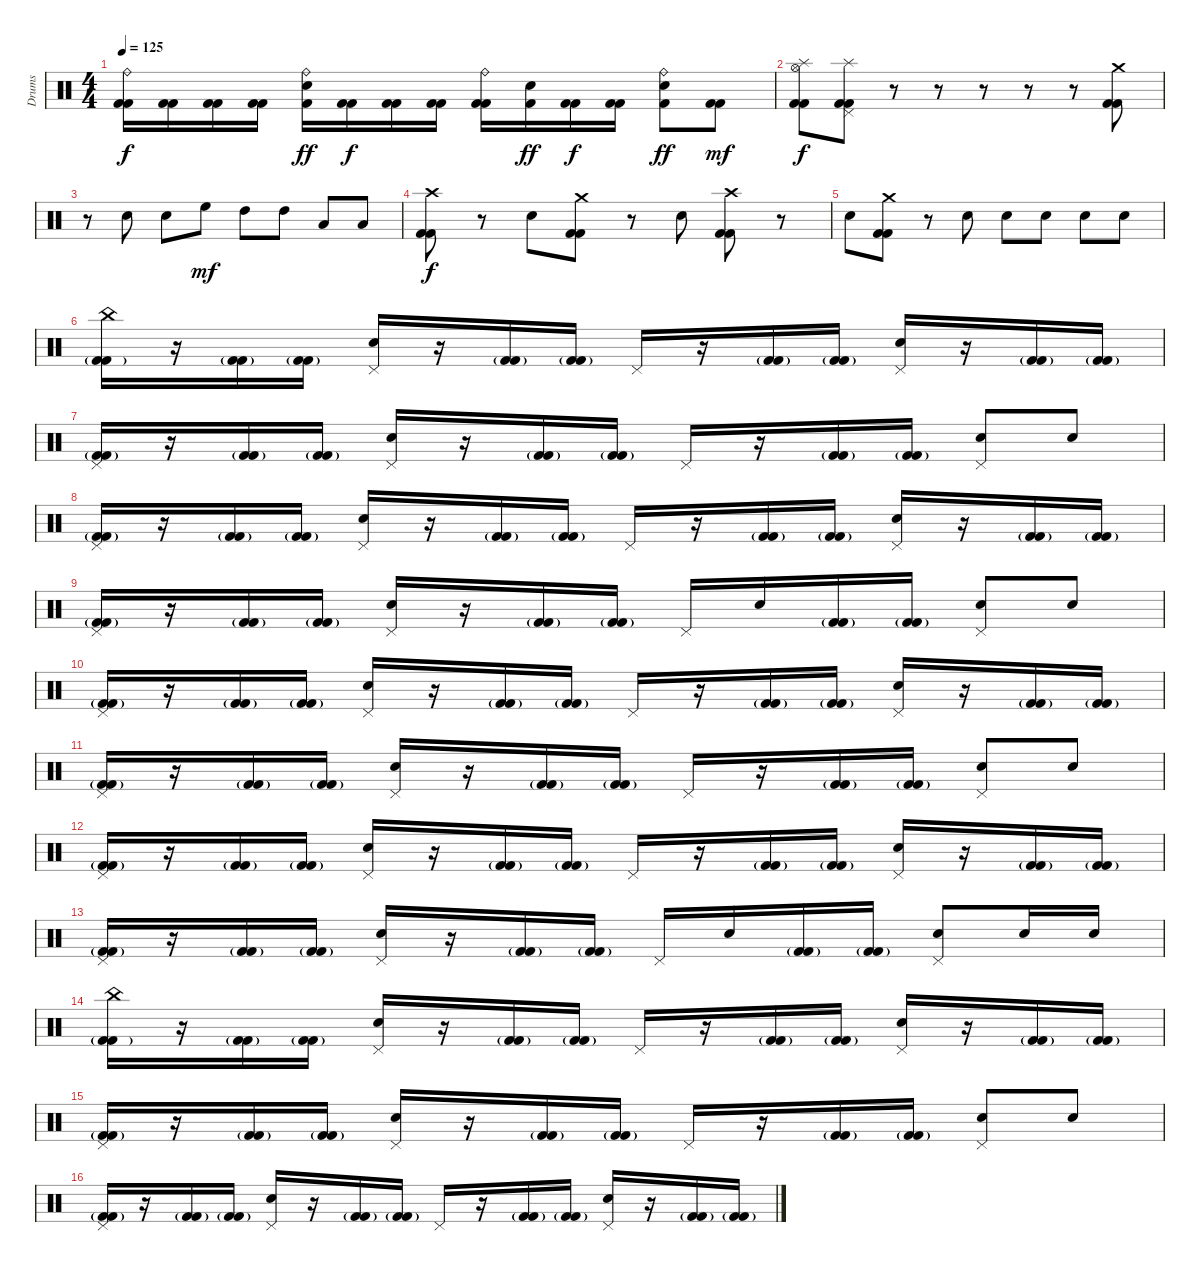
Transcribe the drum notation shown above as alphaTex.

\track ("Drums" "Drums") {instrument percussion}
\staff {score}
\articulation defaults
\ts (4 4)
\tempo 125
\clef neutral
\ks c
("Ride (bell)" "Kick (hit) 2" "Kick (hit) 2").16{dy f} ("Kick (hit) 2" "Kick (hit) 2").16 ("Kick (hit) 2" "Kick (hit) 2").16 ("Kick (hit) 2" "Kick (hit) 2").16 ("Ride (bell)" "Electric Snare (hit)" "Kick (hit) 2").16{dy ff} ("Kick (hit) 2" "Kick (hit) 2").16{dy f} ("Kick (hit) 2" "Kick (hit) 2").16 ("Kick (hit) 2" "Kick (hit) 2").16 ("Ride (bell)" "Kick (hit) 2" "Kick (hit) 2").16 ("Electric Snare (hit)" "Kick (hit) 2").16{dy ff} ("Kick (hit) 2" "Kick (hit) 2").16{dy f} ("Kick (hit) 2" "Kick (hit) 2").16 ("Ride (bell)" "Electric Snare (hit)" "Kick (hit) 2").8{dy ff} ("Kick (hit) 2" "Kick (hit) 2").8{dy mf} |
("Hi-Hat (open)" "Splash (hit)" "Kick (hit) 2" "Kick (hit) 2").8{dy f} ("Pedal Hi-Hat (hit)" "Splash (hit)" "Kick (hit) 2" "Kick (hit) 2").8 r.8 r.8 r.8 r.8 r.8 ("Crash medium (hit)" "Kick (hit) 2" "Kick (hit) 2").8 |
r.8 "Snare (hit) 2".8 "Snare (hit) 2".8 "High Floor Tom (hit)".8{dy mf} "High Tom (hit)".8 "High Tom (hit)".8 "Low Tom (hit)".8 "Low Tom (hit)".8 |
("Crash high (hit)" "Kick (hit) 2" "Kick (hit) 2").8{dy f} r.8 "Snare (hit) 2".8 ("Crash medium (hit)" "Kick (hit) 2" "Kick (hit) 2").8 r.8 "Snare (hit) 2".8 ("Crash high (hit)" "Kick (hit) 2" "Kick (hit) 2").8 r.8 |
"Snare (hit) 2".8 ("Crash medium (hit)" "Kick (hit) 2" "Kick (hit) 2").8 r.8 "Snare (hit) 2".8 "Snare (hit) 2".8 "Snare (hit) 2".8 "Snare (hit) 2".8 "Snare (hit) 2".8 |
("China (hit)" "Kick (hit) 2"{g} "Kick (hit) 2").16 r.16 ("Kick (hit) 2"{g} "Kick (hit) 2").16 ("Kick (hit) 2"{g} "Kick (hit) 2").16 ("Pedal Hi-Hat (hit)" "Electric Snare (hit)").16 r.16 ("Kick (hit) 2"{g} "Kick (hit) 2").16 ("Kick (hit) 2"{g} "Kick (hit) 2").16 "Pedal Hi-Hat (hit)".16 r.16 ("Kick (hit) 2"{g} "Kick (hit) 2").16 ("Kick (hit) 2"{g} "Kick (hit) 2").16 ("Pedal Hi-Hat (hit)" "Electric Snare (hit)").16 r.16 ("Kick (hit) 2"{g} "Kick (hit) 2").16 ("Kick (hit) 2"{g} "Kick (hit) 2").16 |
("Pedal Hi-Hat (hit)" "Kick (hit) 2"{g} "Kick (hit) 2").16 r.16 ("Kick (hit) 2"{g} "Kick (hit) 2").16 ("Kick (hit) 2"{g} "Kick (hit) 2").16 ("Pedal Hi-Hat (hit)" "Electric Snare (hit)").16 r.16 ("Kick (hit) 2"{g} "Kick (hit) 2").16 ("Kick (hit) 2"{g} "Kick (hit) 2").16 "Pedal Hi-Hat (hit)".16 r.16 ("Kick (hit) 2"{g} "Kick (hit) 2").16 ("Kick (hit) 2"{g} "Kick (hit) 2").16 ("Pedal Hi-Hat (hit)" "Electric Snare (hit)").8 "Electric Snare (hit)".8 |
("Pedal Hi-Hat (hit)" "Kick (hit) 2"{g} "Kick (hit) 2").16 r.16 ("Kick (hit) 2"{g} "Kick (hit) 2").16 ("Kick (hit) 2"{g} "Kick (hit) 2").16 ("Pedal Hi-Hat (hit)" "Electric Snare (hit)").16 r.16 ("Kick (hit) 2"{g} "Kick (hit) 2").16 ("Kick (hit) 2"{g} "Kick (hit) 2").16 "Pedal Hi-Hat (hit)".16 r.16 ("Kick (hit) 2"{g} "Kick (hit) 2").16 ("Kick (hit) 2"{g} "Kick (hit) 2").16 ("Pedal Hi-Hat (hit)" "Electric Snare (hit)").16 r.16 ("Kick (hit) 2"{g} "Kick (hit) 2").16 ("Kick (hit) 2"{g} "Kick (hit) 2").16 |
("Pedal Hi-Hat (hit)" "Kick (hit) 2"{g} "Kick (hit) 2").16 r.16 ("Kick (hit) 2"{g} "Kick (hit) 2").16 ("Kick (hit) 2"{g} "Kick (hit) 2").16 ("Pedal Hi-Hat (hit)" "Electric Snare (hit)").16 r.16 ("Kick (hit) 2"{g} "Kick (hit) 2").16 ("Kick (hit) 2"{g} "Kick (hit) 2").16 "Pedal Hi-Hat (hit)".16 "Electric Snare (hit)".16 ("Kick (hit) 2"{g} "Kick (hit) 2").16 ("Kick (hit) 2"{g} "Kick (hit) 2").16 ("Pedal Hi-Hat (hit)" "Electric Snare (hit)").8 "Electric Snare (hit)".8 |
("Pedal Hi-Hat (hit)" "Kick (hit) 2"{g} "Kick (hit) 2").16 r.16 ("Kick (hit) 2"{g} "Kick (hit) 2").16 ("Kick (hit) 2"{g} "Kick (hit) 2").16 ("Pedal Hi-Hat (hit)" "Electric Snare (hit)").16 r.16 ("Kick (hit) 2"{g} "Kick (hit) 2").16 ("Kick (hit) 2"{g} "Kick (hit) 2").16 "Pedal Hi-Hat (hit)".16 r.16 ("Kick (hit) 2"{g} "Kick (hit) 2").16 ("Kick (hit) 2"{g} "Kick (hit) 2").16 ("Pedal Hi-Hat (hit)" "Electric Snare (hit)").16 r.16 ("Kick (hit) 2"{g} "Kick (hit) 2").16 ("Kick (hit) 2"{g} "Kick (hit) 2").16 |
("Pedal Hi-Hat (hit)" "Kick (hit) 2"{g} "Kick (hit) 2").16 r.16 ("Kick (hit) 2"{g} "Kick (hit) 2").16 ("Kick (hit) 2"{g} "Kick (hit) 2").16 ("Pedal Hi-Hat (hit)" "Electric Snare (hit)").16 r.16 ("Kick (hit) 2"{g} "Kick (hit) 2").16 ("Kick (hit) 2"{g} "Kick (hit) 2").16 "Pedal Hi-Hat (hit)".16 r.16 ("Kick (hit) 2"{g} "Kick (hit) 2").16 ("Kick (hit) 2"{g} "Kick (hit) 2").16 ("Pedal Hi-Hat (hit)" "Electric Snare (hit)").8 "Electric Snare (hit)".8 |
("Pedal Hi-Hat (hit)" "Kick (hit) 2"{g} "Kick (hit) 2").16 r.16 ("Kick (hit) 2"{g} "Kick (hit) 2").16 ("Kick (hit) 2"{g} "Kick (hit) 2").16 ("Pedal Hi-Hat (hit)" "Electric Snare (hit)").16 r.16 ("Kick (hit) 2"{g} "Kick (hit) 2").16 ("Kick (hit) 2"{g} "Kick (hit) 2").16 "Pedal Hi-Hat (hit)".16 r.16 ("Kick (hit) 2"{g} "Kick (hit) 2").16 ("Kick (hit) 2"{g} "Kick (hit) 2").16 ("Pedal Hi-Hat (hit)" "Electric Snare (hit)").16 r.16 ("Kick (hit) 2"{g} "Kick (hit) 2").16 ("Kick (hit) 2"{g} "Kick (hit) 2").16 |
("Pedal Hi-Hat (hit)" "Kick (hit) 2"{g} "Kick (hit) 2").16 r.16 ("Kick (hit) 2"{g} "Kick (hit) 2").16 ("Kick (hit) 2"{g} "Kick (hit) 2").16 ("Pedal Hi-Hat (hit)" "Electric Snare (hit)").16 r.16 ("Kick (hit) 2"{g} "Kick (hit) 2").16 ("Kick (hit) 2"{g} "Kick (hit) 2").16 "Pedal Hi-Hat (hit)".16 "Electric Snare (hit)".16 ("Kick (hit) 2"{g} "Kick (hit) 2").16 ("Kick (hit) 2"{g} "Kick (hit) 2").16 ("Pedal Hi-Hat (hit)" "Electric Snare (hit)").8 "Electric Snare (hit)".16 "Electric Snare (hit)".16 |
("China (hit)" "Kick (hit) 2"{g} "Kick (hit) 2").16 r.16 ("Kick (hit) 2"{g} "Kick (hit) 2").16 ("Kick (hit) 2"{g} "Kick (hit) 2").16 ("Pedal Hi-Hat (hit)" "Electric Snare (hit)").16 r.16 ("Kick (hit) 2"{g} "Kick (hit) 2").16 ("Kick (hit) 2"{g} "Kick (hit) 2").16 "Pedal Hi-Hat (hit)".16 r.16 ("Kick (hit) 2"{g} "Kick (hit) 2").16 ("Kick (hit) 2"{g} "Kick (hit) 2").16 ("Pedal Hi-Hat (hit)" "Electric Snare (hit)").16 r.16 ("Kick (hit) 2"{g} "Kick (hit) 2").16 ("Kick (hit) 2"{g} "Kick (hit) 2").16 |
("Pedal Hi-Hat (hit)" "Kick (hit) 2"{g} "Kick (hit) 2").16 r.16 ("Kick (hit) 2"{g} "Kick (hit) 2").16 ("Kick (hit) 2"{g} "Kick (hit) 2").16 ("Pedal Hi-Hat (hit)" "Electric Snare (hit)").16 r.16 ("Kick (hit) 2"{g} "Kick (hit) 2").16 ("Kick (hit) 2"{g} "Kick (hit) 2").16 "Pedal Hi-Hat (hit)".16 r.16 ("Kick (hit) 2"{g} "Kick (hit) 2").16 ("Kick (hit) 2"{g} "Kick (hit) 2").16 ("Pedal Hi-Hat (hit)" "Electric Snare (hit)").8 "Electric Snare (hit)".8 |
("Pedal Hi-Hat (hit)" "Kick (hit) 2"{g} "Kick (hit) 2").16 r.16 ("Kick (hit) 2"{g} "Kick (hit) 2").16 ("Kick (hit) 2"{g} "Kick (hit) 2").16 ("Pedal Hi-Hat (hit)" "Electric Snare (hit)").16 r.16 ("Kick (hit) 2"{g} "Kick (hit) 2").16 ("Kick (hit) 2"{g} "Kick (hit) 2").16 "Pedal Hi-Hat (hit)".16 r.16 ("Kick (hit) 2"{g} "Kick (hit) 2").16 ("Kick (hit) 2"{g} "Kick (hit) 2").16 ("Pedal Hi-Hat (hit)" "Electric Snare (hit)").16 r.16 ("Kick (hit) 2"{g} "Kick (hit) 2").16 ("Kick (hit) 2"{g} "Kick (hit) 2").16
